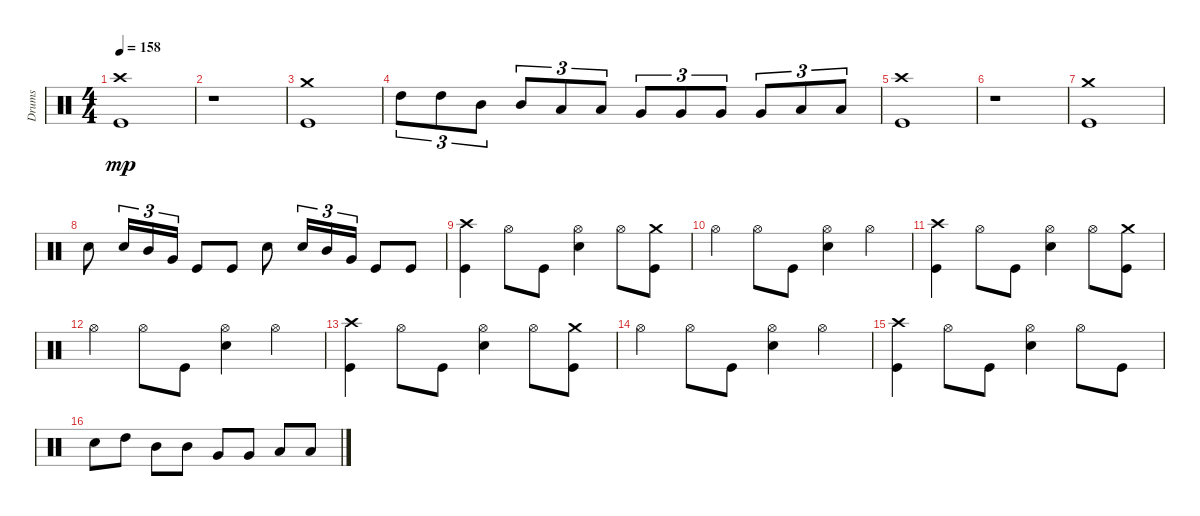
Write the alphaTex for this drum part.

\track ("Drums" "Drums") {instrument percussion}
\staff {score}
\articulation defaults
\ts (4 4)
\tempo 158
\clef neutral
\ks c
("Crash high (hit)" "Kick (hit)").1{dy mp} |
r.1 |
("Crash medium (hit)" "Kick (hit)").1 |
"High Tom (hit)".8{tu (3 2)} "High Tom (hit)".8{tu (3 2)} "Mid Tom (hit)".8{tu (3 2)} "Mid Tom (hit)".8{tu (3 2)} "Low Tom (hit)".8{tu (3 2)} "Low Tom (hit)".8{tu (3 2)} "Very Low Tom (hit)".8{tu (3 2)} "Very Low Tom (hit)".8{tu (3 2)} "Very Low Tom (hit)".8{tu (3 2)} "Very Low Tom (hit)".8{tu (3 2)} "Low Floor Tom (hit)".8{tu (3 2)} "Low Floor Tom (hit)".8{tu (3 2)} |
("Crash high (hit)" "Kick (hit)").1 |
r.1 |
("Crash medium (hit)" "Kick (hit)").1 |
"Snare (hit) 2".8 "Snare (hit) 2".16{tu (3 2)} "Mid Tom (hit)".16{tu (3 2)} "Very Low Tom (hit)".16{tu (3 2)} "Kick (hit)".8 "Kick (hit)".8 "Snare (hit) 2".8 "Snare (hit) 2".16{tu (3 2)} "Mid Tom (hit)".16{tu (3 2)} "Very Low Tom (hit)".16{tu (3 2)} "Kick (hit)".8 "Kick (hit)".8 |
("Crash high (hit)" "Kick (hit)").4 "Hi-Hat (open)".8 "Kick (hit)".8 ("Hi-Hat (open)" "Snare (hit) 2").4 "Hi-Hat (open)".8 ("Crash medium (hit)" "Kick (hit)").8 |
"Hi-Hat (open)".4 "Hi-Hat (open)".8 "Kick (hit)".8 ("Hi-Hat (open)" "Snare (hit) 2").4 "Hi-Hat (open)".4 |
("Crash high (hit)" "Kick (hit)").4 "Hi-Hat (open)".8 "Kick (hit)".8 ("Hi-Hat (open)" "Snare (hit) 2").4 "Hi-Hat (open)".8 ("Crash medium (hit)" "Kick (hit)").8 |
"Hi-Hat (open)".4 "Hi-Hat (open)".8 "Kick (hit)".8 ("Hi-Hat (open)" "Snare (hit) 2").4 "Hi-Hat (open)".4 |
("Crash high (hit)" "Kick (hit)").4 "Hi-Hat (open)".8 "Kick (hit)".8 ("Hi-Hat (open)" "Snare (hit) 2").4 "Hi-Hat (open)".8 ("Crash medium (hit)" "Kick (hit)").8 |
"Hi-Hat (open)".4 "Hi-Hat (open)".8 "Kick (hit)".8 ("Hi-Hat (open)" "Snare (hit) 2").4 "Hi-Hat (open)".4 |
("Crash high (hit)" "Kick (hit)").4 "Hi-Hat (open)".8 "Kick (hit)".8 ("Hi-Hat (open)" "Snare (hit) 2").4 "Hi-Hat (open)".8 "Kick (hit)".8 |
"Snare (hit) 2".8 "High Tom (hit)".8 "Mid Tom (hit)".8 "Mid Tom (hit)".8 "Very Low Tom (hit)".8 "Very Low Tom (hit)".8 "Low Floor Tom (hit)".8 "Low Floor Tom (hit)".8
